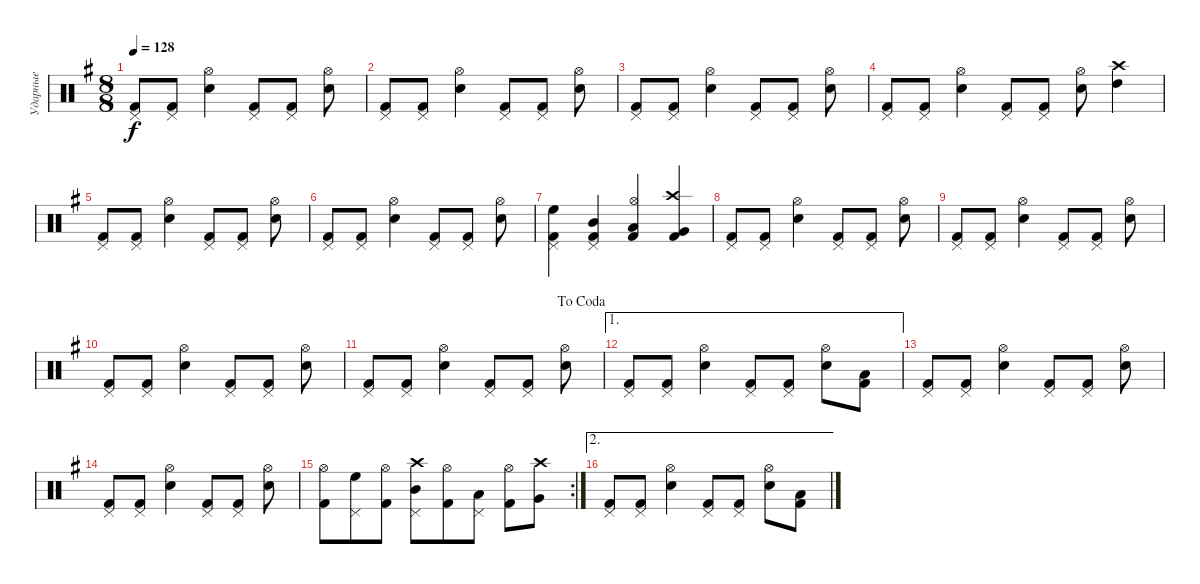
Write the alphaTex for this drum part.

\track ("Ударные" "Ударные") {instrument percussion}
\staff {score}
\articulation defaults
\ts (8 8)
\tempo 128
\clef neutral
\ks g
("Kick (hit) 2" "Pedal Hi-Hat (hit)").8{dy f} ("Kick (hit) 2" "Pedal Hi-Hat (hit)").8 ("Electric Snare (hit)" "Hi-Hat (open)").4 ("Kick (hit) 2" "Pedal Hi-Hat (hit)").8 ("Kick (hit) 2" "Pedal Hi-Hat (hit)").8 ("Electric Snare (hit)" "Hi-Hat (open)").8 |
("Kick (hit) 2" "Pedal Hi-Hat (hit)").8 ("Kick (hit) 2" "Pedal Hi-Hat (hit)").8 ("Electric Snare (hit)" "Hi-Hat (open)").4 ("Kick (hit) 2" "Pedal Hi-Hat (hit)").8 ("Kick (hit) 2" "Pedal Hi-Hat (hit)").8 ("Electric Snare (hit)" "Hi-Hat (open)").8 |
("Kick (hit) 2" "Pedal Hi-Hat (hit)").8 ("Kick (hit) 2" "Pedal Hi-Hat (hit)").8 ("Electric Snare (hit)" "Hi-Hat (open)").4 ("Kick (hit) 2" "Pedal Hi-Hat (hit)").8 ("Kick (hit) 2" "Pedal Hi-Hat (hit)").8 ("Electric Snare (hit)" "Hi-Hat (open)").8 |
("Kick (hit) 2" "Pedal Hi-Hat (hit)").8 ("Kick (hit) 2" "Pedal Hi-Hat (hit)").8 ("Electric Snare (hit)" "Hi-Hat (open)").4 ("Kick (hit) 2" "Pedal Hi-Hat (hit)").8 ("Kick (hit) 2" "Pedal Hi-Hat (hit)").8 ("Electric Snare (hit)" "Hi-Hat (open)").8 ("Crash high (hit)" "High Tom (hit)").4 |
("Kick (hit) 2" "Pedal Hi-Hat (hit)").8 ("Kick (hit) 2" "Pedal Hi-Hat (hit)").8 ("Electric Snare (hit)" "Hi-Hat (open)").4 ("Kick (hit) 2" "Pedal Hi-Hat (hit)").8 ("Kick (hit) 2" "Pedal Hi-Hat (hit)").8 ("Electric Snare (hit)" "Hi-Hat (open)").8 |
("Kick (hit) 2" "Pedal Hi-Hat (hit)").8 ("Kick (hit) 2" "Pedal Hi-Hat (hit)").8 ("Electric Snare (hit)" "Hi-Hat (open)").4 ("Kick (hit) 2" "Pedal Hi-Hat (hit)").8 ("Kick (hit) 2" "Pedal Hi-Hat (hit)").8 ("Electric Snare (hit)" "Hi-Hat (open)").8 |
("Kick (hit) 2" "High Floor Tom (hit)" "Pedal Hi-Hat (hit)").4 ("Kick (hit) 2" "Mid Tom (hit)" "Pedal Hi-Hat (hit)").4 ("Kick (hit) 2" "Low Tom (hit)" "Hi-Hat (open)").4 ("Kick (hit) 2" "Very Low Tom (hit)" "Crash high (hit)").4 |
("Kick (hit) 2" "Pedal Hi-Hat (hit)").8 ("Kick (hit) 2" "Pedal Hi-Hat (hit)").8 ("Electric Snare (hit)" "Hi-Hat (open)").4 ("Kick (hit) 2" "Pedal Hi-Hat (hit)").8 ("Kick (hit) 2" "Pedal Hi-Hat (hit)").8 ("Electric Snare (hit)" "Hi-Hat (open)").8 |
("Kick (hit) 2" "Pedal Hi-Hat (hit)").8 ("Kick (hit) 2" "Pedal Hi-Hat (hit)").8 ("Electric Snare (hit)" "Hi-Hat (open)").4 ("Kick (hit) 2" "Pedal Hi-Hat (hit)").8 ("Kick (hit) 2" "Pedal Hi-Hat (hit)").8 ("Electric Snare (hit)" "Hi-Hat (open)").8 |
("Kick (hit) 2" "Pedal Hi-Hat (hit)").8 ("Kick (hit) 2" "Pedal Hi-Hat (hit)").8 ("Electric Snare (hit)" "Hi-Hat (open)").4 ("Kick (hit) 2" "Pedal Hi-Hat (hit)").8 ("Kick (hit) 2" "Pedal Hi-Hat (hit)").8 ("Electric Snare (hit)" "Hi-Hat (open)").8 |
\jump dacoda
("Kick (hit) 2" "Pedal Hi-Hat (hit)").8 ("Kick (hit) 2" "Pedal Hi-Hat (hit)").8 ("Electric Snare (hit)" "Hi-Hat (open)").4 ("Kick (hit) 2" "Pedal Hi-Hat (hit)").8 ("Kick (hit) 2" "Pedal Hi-Hat (hit)").8 ("Electric Snare (hit)" "Hi-Hat (open)").8 |
\ae 1
("Kick (hit) 2" "Pedal Hi-Hat (hit)").8 ("Kick (hit) 2" "Pedal Hi-Hat (hit)").8 ("Electric Snare (hit)" "Hi-Hat (open)").4 ("Kick (hit) 2" "Pedal Hi-Hat (hit)").8 ("Kick (hit) 2" "Pedal Hi-Hat (hit)").8 ("Electric Snare (hit)" "Hi-Hat (open)").8 ("Kick (hit) 2" "Low Tom (hit)").8 |
("Kick (hit) 2" "Pedal Hi-Hat (hit)").8 ("Kick (hit) 2" "Pedal Hi-Hat (hit)").8 ("Electric Snare (hit)" "Hi-Hat (open)").4 ("Kick (hit) 2" "Pedal Hi-Hat (hit)").8 ("Kick (hit) 2" "Pedal Hi-Hat (hit)").8 ("Electric Snare (hit)" "Hi-Hat (open)").8 |
("Kick (hit) 2" "Pedal Hi-Hat (hit)").8 ("Kick (hit) 2" "Pedal Hi-Hat (hit)").8 ("Electric Snare (hit)" "Hi-Hat (open)").4 ("Kick (hit) 2" "Pedal Hi-Hat (hit)").8 ("Kick (hit) 2" "Pedal Hi-Hat (hit)").8 ("Electric Snare (hit)" "Hi-Hat (open)").8 |
\rc 2
("Kick (hit) 2" "Hi-Hat (open)").8 ("High Floor Tom (hit)" "Pedal Hi-Hat (hit)").8 ("Kick (hit) 2" "Hi-Hat (open)").8 ("Mid Tom (hit)" "Pedal Hi-Hat (hit)" "Crash high (hit)").8 ("Kick (hit) 2" "Hi-Hat (open)").8 ("Low Tom (hit)" "Pedal Hi-Hat (hit)").8 ("Kick (hit) 2" "Hi-Hat (open)").8 ("Very Low Tom (hit)" "Crash high (hit)").8 |
\ae 2
("Kick (hit) 2" "Pedal Hi-Hat (hit)").8 ("Kick (hit) 2" "Pedal Hi-Hat (hit)").8 ("Electric Snare (hit)" "Hi-Hat (open)").4 ("Kick (hit) 2" "Pedal Hi-Hat (hit)").8 ("Kick (hit) 2" "Pedal Hi-Hat (hit)").8 ("Electric Snare (hit)" "Hi-Hat (open)").8 ("Kick (hit) 2" "Low Tom (hit)").8
